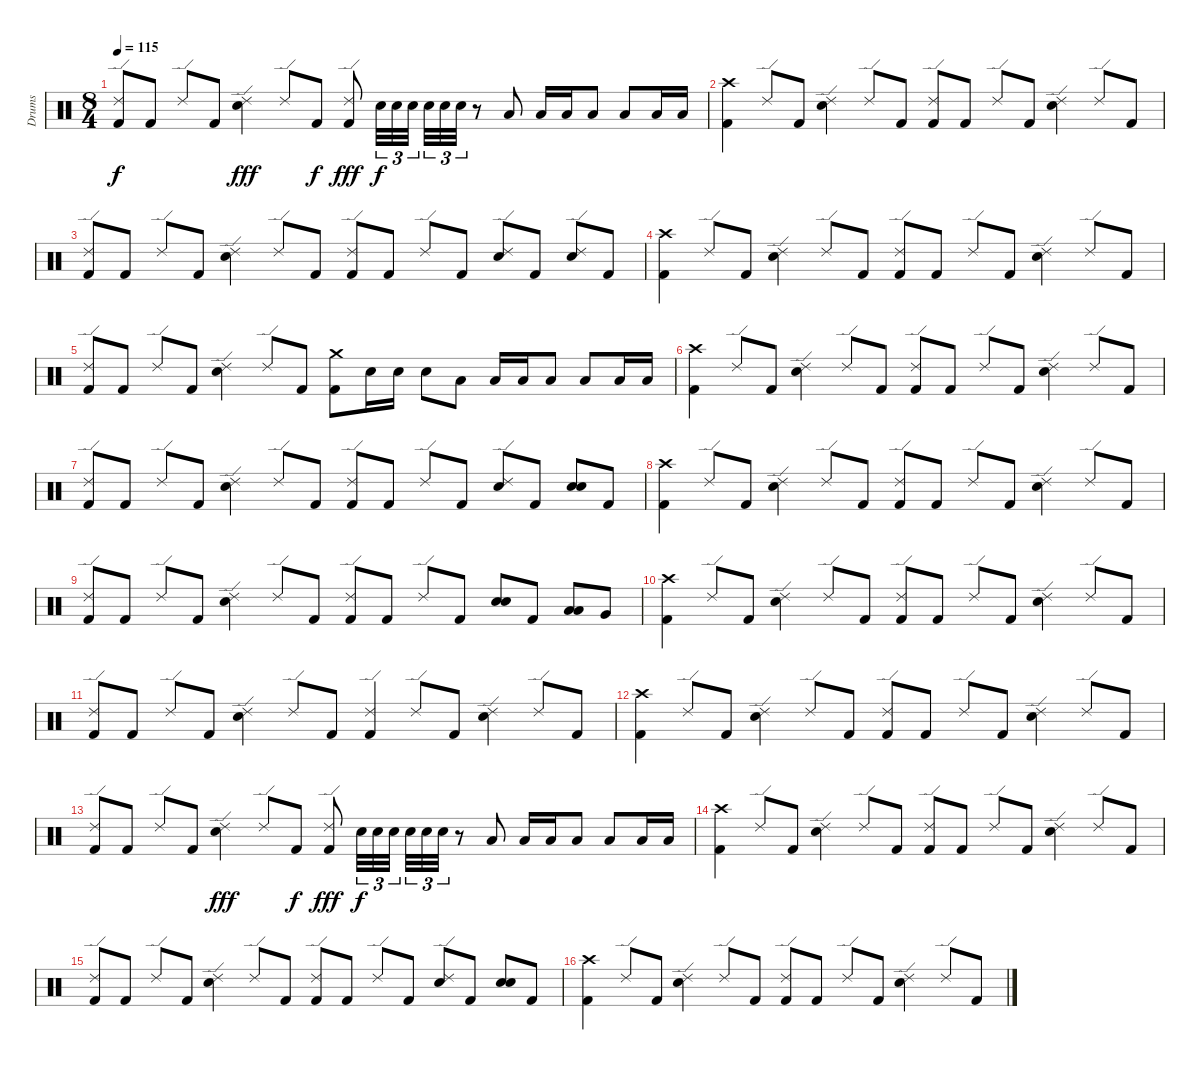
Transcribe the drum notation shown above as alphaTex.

\track ("Drums" "Drums") {instrument percussion}
\staff {score}
\articulation defaults
\ts (8 4)
\tempo 115
\clef neutral
\ks c
("Ride (edge) 2" "Kick (hit) 2").8{dy f} "Kick (hit) 2".8 "Ride (edge) 2".8 "Kick (hit) 2".8 ("Ride (edge) 2" "Electric Snare (hit)").4{dy fff} "Ride (edge) 2".8 "Kick (hit) 2".8{dy f} ("Ride (edge) 2" "Kick (hit) 2").8{dy fff} "Electric Snare (hit)".32{tu (3 2) dy f} "Electric Snare (hit)".32{tu (3 2)} "Electric Snare (hit)".32{tu (3 2)} "Electric Snare (hit)".32{tu (3 2)} "Electric Snare (hit)".32{tu (3 2)} "Electric Snare (hit)".32{tu (3 2)} r.8 "Low Tom (hit)".8 "Low Tom (hit)".16 "Low Tom (hit)".16 "Low Tom (hit)".8 "Low Tom (hit)".8 "Low Tom (hit)".16 "Low Tom (hit)".16 |
("Crash high (hit)" "Kick (hit) 2").4 "Ride (edge) 2".8 "Kick (hit) 2".8 ("Ride (edge) 2" "Electric Snare (hit)").4 "Ride (edge) 2".8 "Kick (hit) 2".8 ("Ride (edge) 2" "Kick (hit) 2").8 "Kick (hit) 2".8 "Ride (edge) 2".8 "Kick (hit) 2".8 ("Ride (edge) 2" "Electric Snare (hit)").4 "Ride (edge) 2".8 "Kick (hit) 2".8 |
("Ride (edge) 2" "Kick (hit) 2").8 "Kick (hit) 2".8 "Ride (edge) 2".8 "Kick (hit) 2".8 ("Ride (edge) 2" "Electric Snare (hit)").4 "Ride (edge) 2".8 "Kick (hit) 2".8 ("Ride (edge) 2" "Kick (hit) 2").8 "Kick (hit) 2".8 "Ride (edge) 2".8 "Kick (hit) 2".8 ("Ride (edge) 2" "Electric Snare (hit)").8 "Kick (hit) 2".8 ("Ride (edge) 2" "Electric Snare (hit)").8 "Kick (hit) 2".8 |
("Crash high (hit)" "Kick (hit) 2").4 "Ride (edge) 2".8 "Kick (hit) 2".8 ("Ride (edge) 2" "Electric Snare (hit)").4 "Ride (edge) 2".8 "Kick (hit) 2".8 ("Ride (edge) 2" "Kick (hit) 2").8 "Kick (hit) 2".8 "Ride (edge) 2".8 "Kick (hit) 2".8 ("Ride (edge) 2" "Electric Snare (hit)").4 "Ride (edge) 2".8 "Kick (hit) 2".8 |
("Ride (edge) 2" "Kick (hit) 2").8 "Kick (hit) 2".8 "Ride (edge) 2".8 "Kick (hit) 2".8 ("Ride (edge) 2" "Electric Snare (hit)").4 "Ride (edge) 2".8 "Kick (hit) 2".8 ("Crash medium (hit)" "Kick (hit) 2").8 "Electric Snare (hit)".16 "Electric Snare (hit)".16 "Electric Snare (hit)".8 "Low Tom (hit)".8 "Low Tom (hit)".16 "Low Tom (hit)".16 "Low Tom (hit)".8 "Low Tom (hit)".8 "Low Tom (hit)".16 "Low Tom (hit)".16 |
("Crash high (hit)" "Kick (hit) 2").4 "Ride (edge) 2".8 "Kick (hit) 2".8 ("Ride (edge) 2" "Electric Snare (hit)").4 "Ride (edge) 2".8 "Kick (hit) 2".8 ("Ride (edge) 2" "Kick (hit) 2").8 "Kick (hit) 2".8 "Ride (edge) 2".8 "Kick (hit) 2".8 ("Ride (edge) 2" "Electric Snare (hit)").4 "Ride (edge) 2".8 "Kick (hit) 2".8 |
("Ride (edge) 2" "Kick (hit) 2").8 "Kick (hit) 2".8 "Ride (edge) 2".8 "Kick (hit) 2".8 ("Ride (edge) 2" "Electric Snare (hit)").4 "Ride (edge) 2".8 "Kick (hit) 2".8 ("Ride (edge) 2" "Kick (hit) 2").8 "Kick (hit) 2".8 "Ride (edge) 2".8 "Kick (hit) 2".8 ("Ride (edge) 2" "Electric Snare (hit)").8 "Kick (hit) 2".8 ("Electric Snare (hit)" "Electric Snare (hit)").8{bu 60} "Kick (hit) 2".8 |
("Crash high (hit)" "Kick (hit) 2").4 "Ride (edge) 2".8 "Kick (hit) 2".8 ("Ride (edge) 2" "Electric Snare (hit)").4 "Ride (edge) 2".8 "Kick (hit) 2".8 ("Ride (edge) 2" "Kick (hit) 2").8 "Kick (hit) 2".8 "Ride (edge) 2".8 "Kick (hit) 2".8 ("Ride (edge) 2" "Electric Snare (hit)").4 "Ride (edge) 2".8 "Kick (hit) 2".8 |
("Ride (edge) 2" "Kick (hit) 2").8 "Kick (hit) 2".8 "Ride (edge) 2".8 "Kick (hit) 2".8 ("Ride (edge) 2" "Electric Snare (hit)").4 "Ride (edge) 2".8 "Kick (hit) 2".8 ("Ride (edge) 2" "Kick (hit) 2").8 "Kick (hit) 2".8 "Ride (edge) 2".8 "Kick (hit) 2".8 ("Electric Snare (hit)" "Electric Snare (hit)").8{bu 60} "Kick (hit) 2".8 ("Low Tom (hit)" "Low Tom (hit)").8{bu 60} "Very Low Tom (hit)".8 |
("Crash high (hit)" "Kick (hit) 2").4 "Ride (edge) 2".8 "Kick (hit) 2".8 ("Ride (edge) 2" "Electric Snare (hit)").4 "Ride (edge) 2".8 "Kick (hit) 2".8 ("Ride (edge) 2" "Kick (hit) 2").8 "Kick (hit) 2".8 "Ride (edge) 2".8 "Kick (hit) 2".8 ("Ride (edge) 2" "Electric Snare (hit)").4 "Ride (edge) 2".8 "Kick (hit) 2".8 |
("Ride (edge) 2" "Kick (hit) 2").8 "Kick (hit) 2".8 "Ride (edge) 2".8 "Kick (hit) 2".8 ("Ride (edge) 2" "Electric Snare (hit)").4 "Ride (edge) 2".8 "Kick (hit) 2".8 ("Ride (edge) 2" "Kick (hit) 2").4 "Ride (edge) 2".8 "Kick (hit) 2".8 ("Ride (edge) 2" "Electric Snare (hit)").4 "Ride (edge) 2".8 "Kick (hit) 2".8 |
("Crash high (hit)" "Kick (hit) 2").4 "Ride (edge) 2".8 "Kick (hit) 2".8 ("Ride (edge) 2" "Electric Snare (hit)").4 "Ride (edge) 2".8 "Kick (hit) 2".8 ("Ride (edge) 2" "Kick (hit) 2").8 "Kick (hit) 2".8 "Ride (edge) 2".8 "Kick (hit) 2".8 ("Ride (edge) 2" "Electric Snare (hit)").4 "Ride (edge) 2".8 "Kick (hit) 2".8 |
("Ride (edge) 2" "Kick (hit) 2").8 "Kick (hit) 2".8 "Ride (edge) 2".8 "Kick (hit) 2".8 ("Ride (edge) 2" "Electric Snare (hit)").4{dy fff} "Ride (edge) 2".8 "Kick (hit) 2".8{dy f} ("Ride (edge) 2" "Kick (hit) 2").8{dy fff} "Electric Snare (hit)".32{tu (3 2) dy f} "Electric Snare (hit)".32{tu (3 2)} "Electric Snare (hit)".32{tu (3 2)} "Electric Snare (hit)".32{tu (3 2)} "Electric Snare (hit)".32{tu (3 2)} "Electric Snare (hit)".32{tu (3 2)} r.8 "Low Tom (hit)".8 "Low Tom (hit)".16 "Low Tom (hit)".16 "Low Tom (hit)".8 "Low Tom (hit)".8 "Low Tom (hit)".16 "Low Tom (hit)".16 |
("Crash high (hit)" "Kick (hit) 2").4 "Ride (edge) 2".8 "Kick (hit) 2".8 ("Ride (edge) 2" "Electric Snare (hit)").4 "Ride (edge) 2".8 "Kick (hit) 2".8 ("Ride (edge) 2" "Kick (hit) 2").8 "Kick (hit) 2".8 "Ride (edge) 2".8 "Kick (hit) 2".8 ("Ride (edge) 2" "Electric Snare (hit)").4 "Ride (edge) 2".8 "Kick (hit) 2".8 |
("Ride (edge) 2" "Kick (hit) 2").8 "Kick (hit) 2".8 "Ride (edge) 2".8 "Kick (hit) 2".8 ("Ride (edge) 2" "Electric Snare (hit)").4 "Ride (edge) 2".8 "Kick (hit) 2".8 ("Ride (edge) 2" "Kick (hit) 2").8 "Kick (hit) 2".8 "Ride (edge) 2".8 "Kick (hit) 2".8 ("Ride (edge) 2" "Electric Snare (hit)").8 "Kick (hit) 2".8 ("Electric Snare (hit)" "Electric Snare (hit)").8{bu 60} "Kick (hit) 2".8 |
("Crash high (hit)" "Kick (hit) 2").4 "Ride (edge) 2".8 "Kick (hit) 2".8 ("Ride (edge) 2" "Electric Snare (hit)").4 "Ride (edge) 2".8 "Kick (hit) 2".8 ("Ride (edge) 2" "Kick (hit) 2").8 "Kick (hit) 2".8 "Ride (edge) 2".8 "Kick (hit) 2".8 ("Ride (edge) 2" "Electric Snare (hit)").4 "Ride (edge) 2".8 "Kick (hit) 2".8
